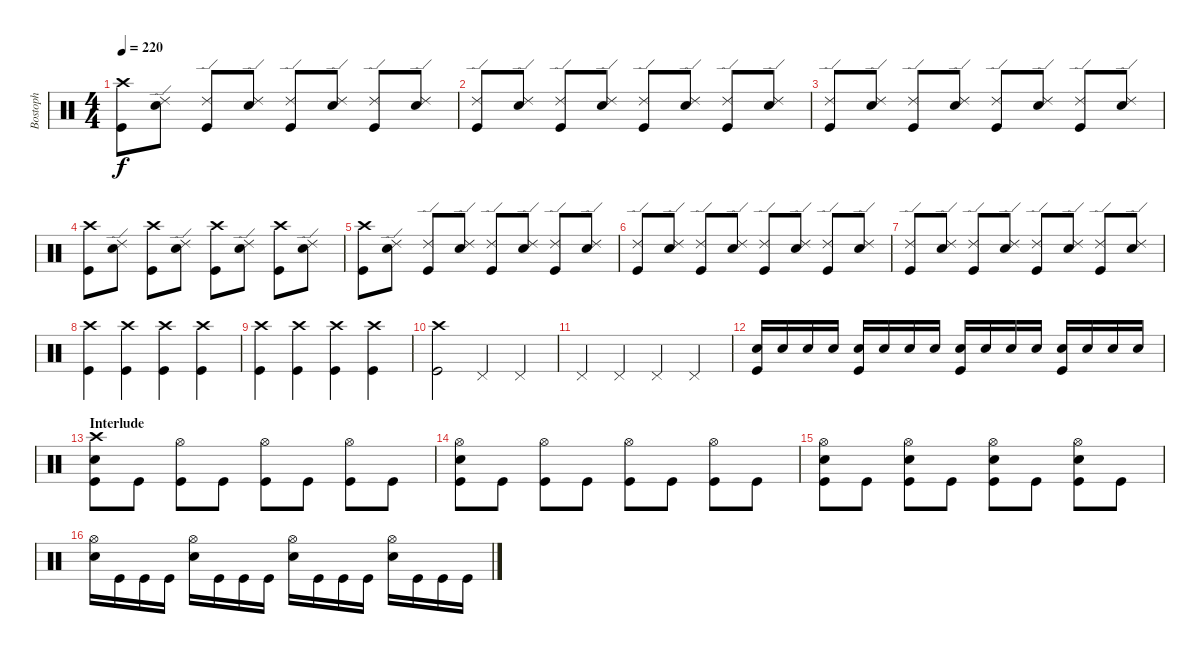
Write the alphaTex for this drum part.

\track ("Bostoph" "Bostoph") {instrument percussion}
\staff {score}
\articulation defaults
\ts (4 4)
\tempo 220
\clef neutral
\ks c
("Crash high (hit)" "Kick (hit)").8{dy f} ("Ride (edge) 2" "Snare (hit) 2").8 ("Ride (edge) 2" "Kick (hit)").8 ("Ride (edge) 2" "Snare (hit) 2").8 ("Ride (edge) 2" "Kick (hit)").8 ("Ride (edge) 2" "Snare (hit) 2").8 ("Ride (edge) 2" "Kick (hit)").8 ("Ride (edge) 2" "Snare (hit) 2").8 |
("Ride (edge) 2" "Kick (hit)").8 ("Ride (edge) 2" "Snare (hit) 2").8 ("Ride (edge) 2" "Kick (hit)").8 ("Ride (edge) 2" "Snare (hit) 2").8 ("Ride (edge) 2" "Kick (hit)").8 ("Ride (edge) 2" "Snare (hit) 2").8 ("Ride (edge) 2" "Kick (hit)").8 ("Ride (edge) 2" "Snare (hit) 2").8 |
("Ride (edge) 2" "Kick (hit)").8 ("Ride (edge) 2" "Snare (hit) 2").8 ("Ride (edge) 2" "Kick (hit)").8 ("Ride (edge) 2" "Snare (hit) 2").8 ("Ride (edge) 2" "Kick (hit)").8 ("Ride (edge) 2" "Snare (hit) 2").8 ("Ride (edge) 2" "Kick (hit)").8 ("Ride (edge) 2" "Snare (hit) 2").8 |
("Crash high (hit)" "Kick (hit)").8 ("Ride (edge) 2" "Snare (hit) 2").8 ("Crash high (hit)" "Kick (hit)").8 ("Ride (edge) 2" "Snare (hit) 2").8 ("Crash high (hit)" "Kick (hit)").8 ("Ride (edge) 2" "Snare (hit) 2").8 ("Crash high (hit)" "Kick (hit)").8 ("Ride (edge) 2" "Snare (hit) 2").8 |
("Crash high (hit)" "Kick (hit)").8 ("Ride (edge) 2" "Snare (hit) 2").8 ("Ride (edge) 2" "Kick (hit)").8 ("Ride (edge) 2" "Snare (hit) 2").8 ("Ride (edge) 2" "Kick (hit)").8 ("Ride (edge) 2" "Snare (hit) 2").8 ("Ride (edge) 2" "Kick (hit)").8 ("Ride (edge) 2" "Snare (hit) 2").8 |
("Ride (edge) 2" "Kick (hit)").8 ("Ride (edge) 2" "Snare (hit) 2").8 ("Ride (edge) 2" "Kick (hit)").8 ("Ride (edge) 2" "Snare (hit) 2").8 ("Ride (edge) 2" "Kick (hit)").8 ("Ride (edge) 2" "Snare (hit) 2").8 ("Ride (edge) 2" "Kick (hit)").8 ("Ride (edge) 2" "Snare (hit) 2").8 |
("Ride (edge) 2" "Kick (hit)").8 ("Ride (edge) 2" "Snare (hit) 2").8 ("Ride (edge) 2" "Kick (hit)").8 ("Ride (edge) 2" "Snare (hit) 2").8 ("Ride (edge) 2" "Kick (hit)").8 ("Ride (edge) 2" "Snare (hit) 2").8 ("Ride (edge) 2" "Kick (hit)").8 ("Ride (edge) 2" "Snare (hit) 2").8 |
("Crash high (hit)" "Kick (hit)").4 ("Crash high (hit)" "Kick (hit)").4 ("Crash high (hit)" "Kick (hit)").4 ("Crash high (hit)" "Kick (hit)").4 |
("Crash high (hit)" "Kick (hit)").4 ("Crash high (hit)" "Kick (hit)").4 ("Crash high (hit)" "Kick (hit)").4 ("Crash high (hit)" "Kick (hit)").4 |
("Crash high (hit)" "Kick (hit)").2 "Pedal Hi-Hat (hit)".4 "Pedal Hi-Hat (hit)".4 |
"Pedal Hi-Hat (hit)".4 "Pedal Hi-Hat (hit)".4 "Pedal Hi-Hat (hit)".4 "Pedal Hi-Hat (hit)".4 |
("Snare (hit) 2" "Kick (hit)").16 "Snare (hit) 2".16 "Snare (hit) 2".16 "Snare (hit) 2".16 ("Snare (hit) 2" "Kick (hit)").16 "Snare (hit) 2".16 "Snare (hit) 2".16 "Snare (hit) 2".16 ("Snare (hit) 2" "Kick (hit)").16 "Snare (hit) 2".16 "Snare (hit) 2".16 "Snare (hit) 2".16 ("Snare (hit) 2" "Kick (hit)").16 "Snare (hit) 2".16 "Snare (hit) 2".16 "Snare (hit) 2".16 |
\section ("" "Interlude")
("Crash high (hit)" "Snare (hit) 2" "Kick (hit)").8 "Kick (hit)".8 ("Hi-Hat (open)" "Kick (hit)").8 "Kick (hit)".8 ("Hi-Hat (open)" "Kick (hit)").8 "Kick (hit)".8 ("Hi-Hat (open)" "Kick (hit)").8 "Kick (hit)".8 |
("Hi-Hat (open)" "Snare (hit) 2" "Kick (hit)").8 "Kick (hit)".8 ("Hi-Hat (open)" "Kick (hit)").8 "Kick (hit)".8 ("Hi-Hat (open)" "Kick (hit)").8 "Kick (hit)".8 ("Hi-Hat (open)" "Kick (hit)").8 "Kick (hit)".8 |
("Hi-Hat (open)" "Snare (hit) 2" "Kick (hit)").8 "Kick (hit)".8 ("Hi-Hat (open)" "Snare (hit) 2" "Kick (hit)").8 "Kick (hit)".8 ("Hi-Hat (open)" "Snare (hit) 2" "Kick (hit)").8 "Kick (hit)".8 ("Hi-Hat (open)" "Snare (hit) 2" "Kick (hit)").8 "Kick (hit)".8 |
("Hi-Hat (open)" "Snare (hit) 2").16 "Kick (hit)".16 "Kick (hit)".16 "Kick (hit)".16 ("Hi-Hat (open)" "Snare (hit) 2").16 "Kick (hit)".16 "Kick (hit)".16 "Kick (hit)".16 ("Hi-Hat (open)" "Snare (hit) 2").16 "Kick (hit)".16 "Kick (hit)".16 "Kick (hit)".16 ("Hi-Hat (open)" "Snare (hit) 2").16 "Kick (hit)".16 "Kick (hit)".16 "Kick (hit)".16
